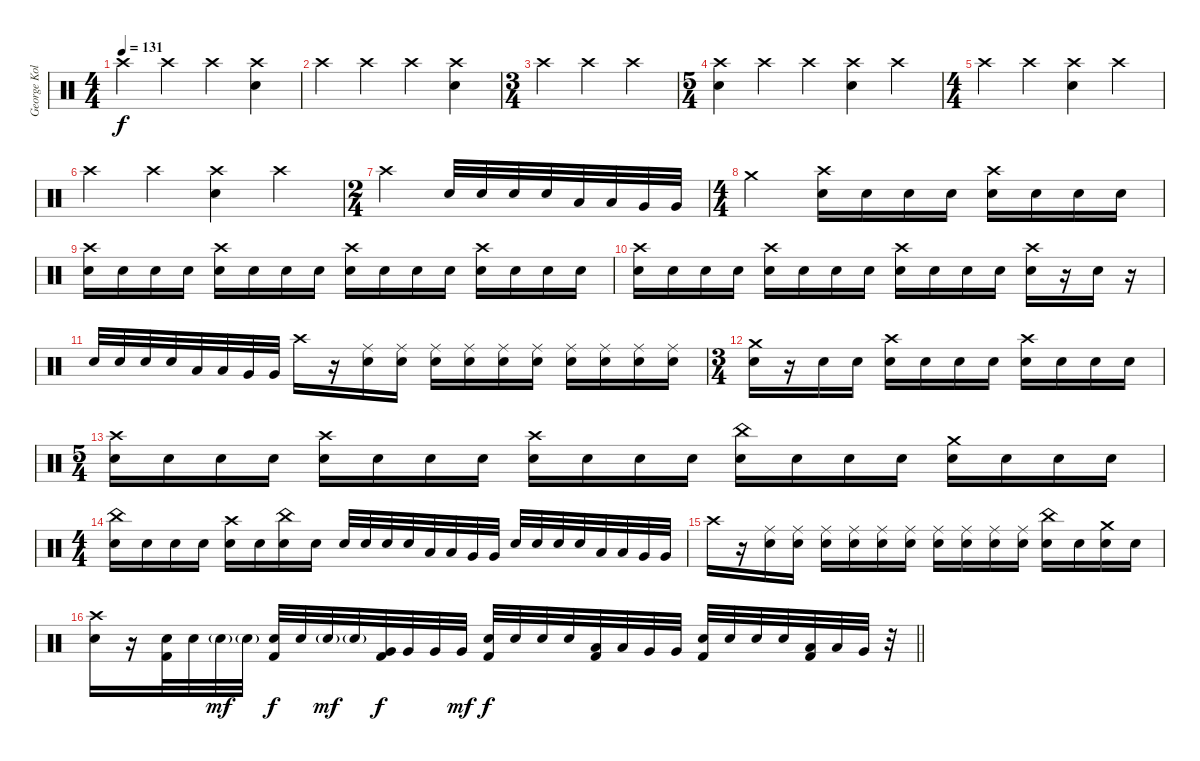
\track ("George Kollias" "George Kol") {instrument percussion}
\staff {score}
\articulation defaults
\ts (4 4)
\tempo 131
\clef neutral
\ks c "Crash high (hit)".4{dy f} "Crash high (hit)".4 "Crash high (hit)".4
("Crash high (hit)" "Electric Snare (hit)").4 |
"Crash high (hit)".4 "Crash high (hit)".4 "Crash high (hit)".4 ("Crash high (hit)" "Electric Snare (hit)").4 |
\ts (3 4)
"Crash high (hit)".4 "Crash high (hit)".4 "Crash high (hit)".4 |
\ts (5 4)
("Crash high (hit)" "Electric Snare (hit)").4 "Crash high (hit)".4 "Crash high (hit)".4 ("Crash high (hit)" "Electric Snare (hit)").4 "Crash high (hit)".4 |
\ts (4 4)
"Crash high (hit)".4 "Crash high (hit)".4 ("Crash high (hit)" "Electric Snare (hit)").4 "Crash high (hit)".4 |
"Crash high (hit)".4 "Crash high (hit)".4 ("Crash high (hit)" "Electric Snare (hit)").4 "Crash high (hit)".4 |
\ts (2 4)
"Crash high (hit)".4 "Electric Snare (hit)".32 "Electric Snare (hit)".32 "Electric Snare (hit)".32 "Electric Snare (hit)".32 "Low Tom (hit)".32 "Low Tom (hit)".32 "Very Low Tom (hit)".32 "Very Low Tom (hit)".32 |
\ts (4 4)
"Crash medium (hit)".2 ("Crash high (hit)" "Electric Snare (hit)").16 "Electric Snare (hit)".16 "Electric Snare (hit)".16 "Electric Snare (hit)".16 ("Crash high (hit)" "Electric Snare (hit)").16 "Electric Snare (hit)".16 "Electric Snare (hit)".16 "Electric Snare (hit)".16 |
("Crash high (hit)" "Electric Snare (hit)").16 "Electric Snare (hit)".16 "Electric Snare (hit)".16 "Electric Snare (hit)".16 ("Crash high (hit)" "Electric Snare (hit)").16 "Electric Snare (hit)".16 "Electric Snare (hit)".16 "Electric Snare (hit)".16 ("Crash high (hit)" "Electric Snare (hit)").16 "Electric Snare (hit)".16 "Electric Snare (hit)".16 "Electric Snare (hit)".16 ("Crash high (hit)" "Electric Snare (hit)").16 "Electric Snare (hit)".16 "Electric Snare (hit)".16 "Electric Snare (hit)".16 |
("Crash high (hit)" "Electric Snare (hit)").16 "Electric Snare (hit)".16 "Electric Snare (hit)".16 "Electric Snare (hit)".16 ("Crash high (hit)" "Electric Snare (hit)").16 "Electric Snare (hit)".16 "Electric Snare (hit)".16 "Electric Snare (hit)".16 ("Crash high (hit)" "Electric Snare (hit)").16 "Electric Snare (hit)".16 "Electric Snare (hit)".16 "Electric Snare (hit)".16 ("Crash high (hit)" "Electric Snare (hit)").16 r.16 "Electric Snare (hit)".16 r.16 |
"Electric Snare (hit)".32 "Electric Snare (hit)".32 "Electric Snare (hit)".32 "Electric Snare (hit)".32 "Low Tom (hit)".32 "Low Tom (hit)".32 "Very Low Tom (hit)".32 "Very Low Tom (hit)".32 "Crash high (hit)".16 r.16 ("Ride (middle)" "Electric Snare (hit)").16 ("Ride (middle)" "Electric Snare (hit)").16 ("Ride (middle)" "Electric Snare (hit)").16 ("Ride (middle)" "Electric Snare (hit)").16 ("Ride (middle)" "Electric Snare (hit)").16 ("Ride (middle)" "Electric Snare (hit)").16 ("Ride (middle)" "Electric Snare (hit)").16 ("Ride (middle)" "Electric Snare (hit)").16 ("Ride (middle)" "Electric Snare (hit)").16 ("Ride (middle)" "Electric Snare (hit)").16 |
\ts (3 4)
("Crash medium (hit)" "Electric Snare (hit)").16 r.16 "Electric Snare (hit)".16 "Electric Snare (hit)".16 ("Crash high (hit)" "Electric Snare (hit)").16 "Electric Snare (hit)".16 "Electric Snare (hit)".16 "Electric Snare (hit)".16 ("Crash high (hit)" "Electric Snare (hit)").16 "Electric Snare (hit)".16 "Electric Snare (hit)".16 "Electric Snare (hit)".16 |
\ts (5 4)
("Crash high (hit)" "Electric Snare (hit)").16 "Electric Snare (hit)".16 "Electric Snare (hit)".16 "Electric Snare (hit)".16 ("Crash high (hit)" "Electric Snare (hit)").16 "Electric Snare (hit)".16 "Electric Snare (hit)".16 "Electric Snare (hit)".16 ("Crash high (hit)" "Electric Snare (hit)").16 "Electric Snare (hit)".16 "Electric Snare (hit)".16 "Electric Snare (hit)".16 ("China (hit)" "Electric Snare (hit)").16 "Electric Snare (hit)".16 "Electric Snare (hit)".16 "Electric Snare (hit)".16 ("Crash medium (hit)" "Electric Snare (hit)").16 "Electric Snare (hit)".16 "Electric Snare (hit)".16 "Electric Snare (hit)".16 |
\ts (4 4)
("China (hit)" "Electric Snare (hit)").16 "Electric Snare (hit)".16 "Electric Snare (hit)".16 "Electric Snare (hit)".16 ("Crash high (hit)" "Electric Snare (hit)").16 "Electric Snare (hit)".16 ("China (hit)" "Electric Snare (hit)").16 "Electric Snare (hit)".16 "Electric Snare (hit)".32 "Electric Snare (hit)".32 "Electric Snare (hit)".32 "Electric Snare (hit)".32 "Low Tom (hit)".32 "Low Tom (hit)".32 "Very Low Tom (hit)".32 "Very Low Tom (hit)".32 "Electric Snare (hit)".32 "Electric Snare (hit)".32 "Electric Snare (hit)".32 "Electric Snare (hit)".32 "Low Tom (hit)".32 "Low Tom (hit)".32 "Very Low Tom (hit)".32 "Very Low Tom (hit)".32 |
"Crash high (hit)".16 r.16 ("Ride (middle)" "Electric Snare (hit)").16 ("Ride (middle)" "Electric Snare (hit)").16 ("Ride (middle)" "Electric Snare (hit)").16 ("Ride (middle)" "Electric Snare (hit)").16 ("Ride (middle)" "Electric Snare (hit)").16 ("Ride (middle)" "Electric Snare (hit)").16 ("Ride (middle)" "Electric Snare (hit)").16 ("Ride (middle)" "Electric Snare (hit)").16 ("Ride (middle)" "Electric Snare (hit)").16 ("Ride (middle)" "Electric Snare (hit)").16 ("China (hit)" "Electric Snare (hit)").16 "Electric Snare (hit)".16 ("Crash medium (hit)" "Electric Snare (hit)").16 "Electric Snare (hit)".16 |
\barLineRight lightlight
("Crash high (hit)" "Electric Snare (hit)").16 r.16 ("Electric Snare (hit)" "Kick (hit) 2").32 "Electric Snare (hit)".32 "Electric Snare (hit)"{g}.32{dy mf} "Electric Snare (hit)"{g}.32 ("Electric Snare (hit)" "Kick (hit) 2").32{dy f} "Electric Snare (hit)".32 "Electric Snare (hit)"{g}.32{dy mf} "Electric Snare (hit)"{g}.32 ("Very Low Tom (hit)" "Kick (hit) 2").32{dy f} "Very Low Tom (hit)".32 "Very Low Tom (hit)".32 "Very Low Tom (hit)".32{dy mf} ("Electric Snare (hit)" "Kick (hit) 2").32{dy f} "Electric Snare (hit)".32 "Electric Snare (hit)".32 "Electric Snare (hit)".32 ("Low Tom (hit)" "Kick (hit) 2").32 "Low Tom (hit)".32 "Very Low Tom (hit)".32 "Very Low Tom (hit)".32 ("Electric Snare (hit)" "Kick (hit) 2").32 "Electric Snare (hit)".32 "Electric Snare (hit)".32 "Electric Snare (hit)".32 ("Low Tom (hit)" "Kick (hit) 2").32 "Low Tom (hit)".32 "Very Low Tom (hit)".32 r.32
